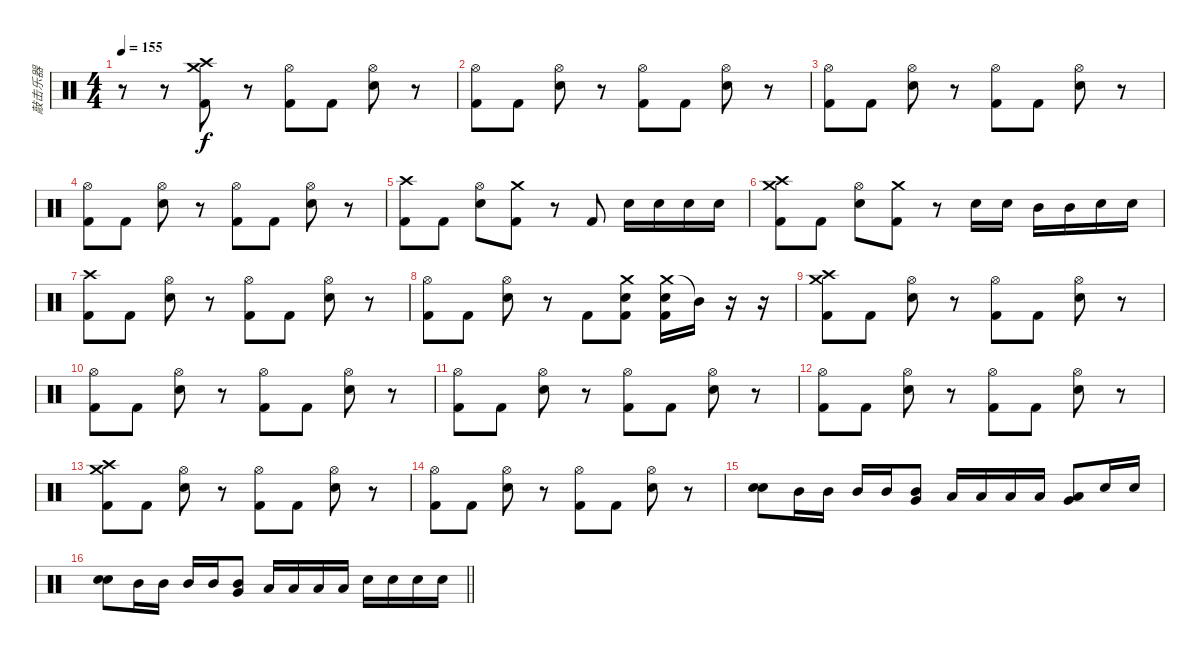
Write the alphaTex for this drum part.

\track ("敲击乐器" "敲击乐器") {instrument percussion}
\staff {score}
\articulation defaults
\ts (4 4)
\tempo 155
\clef neutral
\ks c
r.8{dy f} r.8 ("Crash high (hit)" "Crash medium (hit)" "Kick (hit) 2").8 r.8 ("Hi-Hat (open)" "Kick (hit) 2").8 "Kick (hit) 2".8 ("Hi-Hat (open)" "Snare (hit) 2").8 r.8 |
("Hi-Hat (open)" "Kick (hit) 2").8 "Kick (hit) 2".8 ("Hi-Hat (open)" "Snare (hit) 2").8 r.8 ("Hi-Hat (open)" "Kick (hit) 2").8 "Kick (hit) 2".8 ("Hi-Hat (open)" "Snare (hit) 2").8 r.8 |
("Hi-Hat (open)" "Kick (hit) 2").8 "Kick (hit) 2".8 ("Hi-Hat (open)" "Snare (hit) 2").8 r.8 ("Hi-Hat (open)" "Kick (hit) 2").8 "Kick (hit) 2".8 ("Hi-Hat (open)" "Snare (hit) 2").8 r.8 |
("Hi-Hat (open)" "Kick (hit) 2").8 "Kick (hit) 2".8 ("Hi-Hat (open)" "Snare (hit) 2").8 r.8 ("Hi-Hat (open)" "Kick (hit) 2").8 "Kick (hit) 2".8 ("Hi-Hat (open)" "Snare (hit) 2").8 r.8 |
("Crash high (hit)" "Kick (hit) 2").8 "Kick (hit) 2".8 ("Hi-Hat (open)" "Snare (hit) 2").8 ("Crash medium (hit)" "Kick (hit) 2").8 r.8 "Kick (hit) 2".8 "Snare (hit) 2".16 "Snare (hit) 2".16 "Snare (hit) 2".16 "Snare (hit) 2".16 |
("Crash high (hit)" "Crash medium (hit)" "Kick (hit) 2").8 "Kick (hit) 2".8 ("Hi-Hat (open)" "Snare (hit) 2").8 ("Crash medium (hit)" "Kick (hit) 2").8 r.8 "Snare (hit) 2".16 "Snare (hit) 2".16 "Mid Tom (hit)".16 "Mid Tom (hit)".16 "Snare (hit) 2".16 "Snare (hit) 2".16 |
("Crash high (hit)" "Kick (hit) 2").8 "Kick (hit) 2".8 ("Hi-Hat (open)" "Snare (hit) 2").8 r.8 ("Hi-Hat (open)" "Kick (hit) 2").8 "Kick (hit) 2".8 ("Hi-Hat (open)" "Snare (hit) 2").8 r.8 |
("Hi-Hat (open)" "Kick (hit) 2").8 "Kick (hit) 2".8 ("Hi-Hat (open)" "Snare (hit) 2").8 r.8 "Kick (hit) 2".8 ("Crash medium (hit)" "Snare (hit) 2" "Kick (hit) 2").8 ("Crash medium (hit)" "Snare (hit) 2" "Kick (hit) 2").16 "Mid Tom (hit)"{t}.16 r.16 r.16 |
("Crash high (hit)" "Crash medium (hit)" "Kick (hit) 2").8 "Kick (hit) 2".8 ("Hi-Hat (open)" "Snare (hit) 2").8 r.8 ("Hi-Hat (open)" "Kick (hit) 2").8 "Kick (hit) 2".8 ("Hi-Hat (open)" "Snare (hit) 2").8 r.8 |
("Hi-Hat (open)" "Kick (hit) 2").8 "Kick (hit) 2".8 ("Hi-Hat (open)" "Snare (hit) 2").8 r.8 ("Hi-Hat (open)" "Kick (hit) 2").8 "Kick (hit) 2".8 ("Hi-Hat (open)" "Snare (hit) 2").8 r.8 |
("Hi-Hat (open)" "Kick (hit) 2").8 "Kick (hit) 2".8 ("Hi-Hat (open)" "Snare (hit) 2").8 r.8 ("Hi-Hat (open)" "Kick (hit) 2").8 "Kick (hit) 2".8 ("Hi-Hat (open)" "Snare (hit) 2").8 r.8 |
("Hi-Hat (open)" "Kick (hit) 2").8 "Kick (hit) 2".8 ("Hi-Hat (open)" "Snare (hit) 2").8 r.8 ("Hi-Hat (open)" "Kick (hit) 2").8 "Kick (hit) 2".8 ("Hi-Hat (open)" "Snare (hit) 2").8 r.8 |
("Crash high (hit)" "Crash medium (hit)" "Kick (hit) 2").8 "Kick (hit) 2".8 ("Hi-Hat (open)" "Snare (hit) 2").8 r.8 ("Hi-Hat (open)" "Kick (hit) 2").8 "Kick (hit) 2".8 ("Hi-Hat (open)" "Snare (hit) 2").8 r.8 |
("Hi-Hat (open)" "Kick (hit) 2").8 "Kick (hit) 2".8 ("Hi-Hat (open)" "Snare (hit) 2").8 r.8 ("Hi-Hat (open)" "Kick (hit) 2").8 "Kick (hit) 2".8 ("Hi-Hat (open)" "Snare (hit) 2").8 r.8 |
("Snare (hit) 2" "Snare (hit) 2").8{bd 60} "Mid Tom (hit)".16 "Mid Tom (hit)".16 "Mid Tom (hit)".16 "Mid Tom (hit)".16 ("Very Low Tom (hit)" "Mid Tom (hit)").8{bd 60} "Low Tom (hit)".16 "Low Tom (hit)".16 "Low Tom (hit)".16 "Low Tom (hit)".16 ("Low Tom (hit)" "Very Low Tom (hit)").8{bd 60} "Snare (hit) 2".16 "Snare (hit) 2".16 |
\barLineRight lightlight
("Snare (hit) 2" "Snare (hit) 2").8{bd 60} "Mid Tom (hit)".16 "Mid Tom (hit)".16 "Mid Tom (hit)".16 "Mid Tom (hit)".16 ("Very Low Tom (hit)" "Mid Tom (hit)").8{bd 60} "Low Tom (hit)".16 "Low Tom (hit)".16 "Low Tom (hit)".16 "Low Tom (hit)".16 "Snare (hit) 2".16 "Snare (hit) 2".16 "Snare (hit) 2".16 "Snare (hit) 2".16
